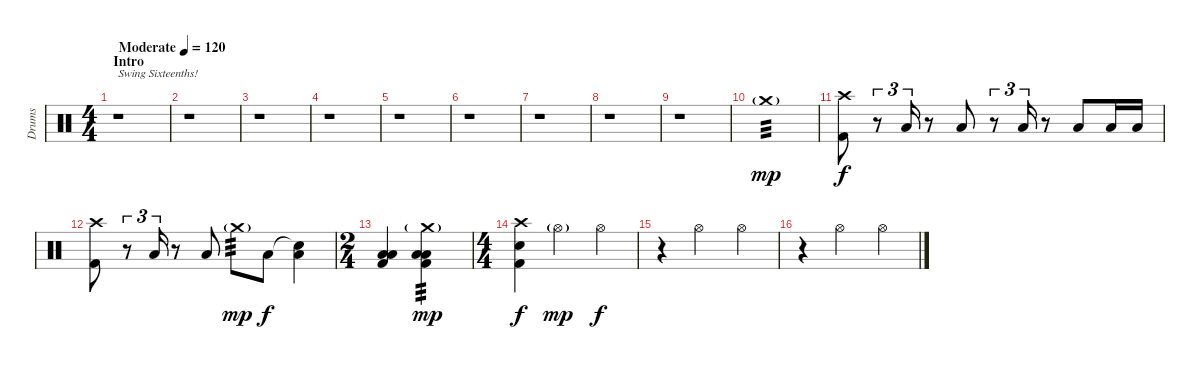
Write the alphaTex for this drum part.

\track ("Drums" "Drums") {instrument percussion}
\staff {score}
\articulation defaults
\ts (4 4)
\section ("" "Intro")
\tempo (120 "Moderate")
\clef neutral
\ks c
r.1{txt "Swing Sixteenths!" dy mp} |
r.1 |
r.1 |
r.1 |
r.1 |
r.1 |
r.1 |
r.1 |
r.1{volume 0} |
"Crash medium (hit)"{g}.1{tp 3 volume 16} |
("Crash high (hit)" "Kick (hit) 2").8{dy f} r.8{tu (3 2)} "Low Tom (hit)".16{tu (3 2)} r.8 "Low Tom (hit)".8 r.8{tu (3 2)} "Low Tom (hit)".16{tu (3 2)} r.8 "Low Tom (hit)".8 "Low Tom (hit)".16 "Low Tom (hit)".16 |
("Crash high (hit)" "Kick (hit) 2").8 r.8{tu (3 2)} "Low Tom (hit)".16{tu (3 2)} r.8 "Low Tom (hit)".8 "Crash medium (hit)"{g}.8{tp 3 dy mp} "Low Tom (hit)".8{dy f} ("Snare (hit)"{t} "Low Tom (hit)").4 |
\ts (2 4)
("Low Tom (hit)" "Low Floor Tom (hit)" "Kick (hit) 2").4 ("Crash medium (hit)"{g} "Low Tom (hit)" "Low Floor Tom (hit)" "Kick (hit) 2").4{tp 3 dy mp} |
\ts (4 4)
("Crash high (hit)" "Electric Snare (hit)" "Kick (hit) 2").4{dy f} "Hi-Hat (open)"{g}.2{dy mp} "Hi-Hat (open)".4{dy f} |
r.4 "Hi-Hat (open)".2 "Hi-Hat (open)".4 |
r.4 "Hi-Hat (open)".2 "Hi-Hat (open)".4
